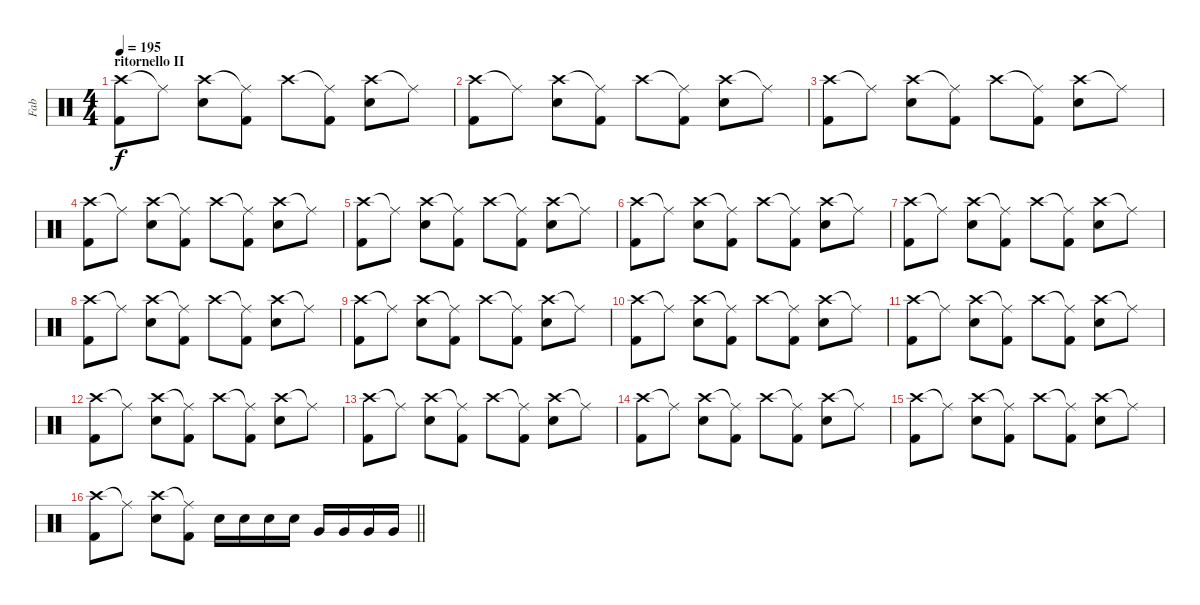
\track ("Fab" "Fab") {instrument percussion}
\staff {score}
\articulation defaults
\ts (4 4)
\section ("" "ritornello II")
\tempo 195
\clef neutral
\ks c
("Crash high (hit)" "Kick (hit) 2").8{dy f} "Ride (middle)"{t}.8 ("Crash high (hit)" "Electric Snare (hit)").8 ("Ride (middle)"{t} "Kick (hit) 2").8 "Crash high (hit)".8 ("Ride (middle)"{t} "Kick (hit) 2").8 ("Crash high (hit)" "Electric Snare (hit)").8 "Ride (middle)"{t}.8 |
("Crash high (hit)" "Kick (hit) 2").8 "Ride (middle)"{t}.8 ("Crash high (hit)" "Electric Snare (hit)").8 ("Ride (middle)"{t} "Kick (hit) 2").8 "Crash high (hit)".8 ("Ride (middle)"{t} "Kick (hit) 2").8 ("Crash high (hit)" "Electric Snare (hit)").8 "Ride (middle)"{t}.8 |
("Crash high (hit)" "Kick (hit) 2").8 "Ride (middle)"{t}.8 ("Crash high (hit)" "Electric Snare (hit)").8 ("Ride (middle)"{t} "Kick (hit) 2").8 "Crash high (hit)".8 ("Ride (middle)"{t} "Kick (hit) 2").8 ("Crash high (hit)" "Electric Snare (hit)").8 "Ride (middle)"{t}.8 |
("Crash high (hit)" "Kick (hit) 2").8 "Ride (middle)"{t}.8 ("Crash high (hit)" "Electric Snare (hit)").8 ("Ride (middle)"{t} "Kick (hit) 2").8 "Crash high (hit)".8 ("Ride (middle)"{t} "Kick (hit) 2").8 ("Crash high (hit)" "Electric Snare (hit)").8 "Ride (middle)"{t}.8 |
("Crash high (hit)" "Kick (hit) 2").8 "Ride (middle)"{t}.8 ("Crash high (hit)" "Electric Snare (hit)").8 ("Ride (middle)"{t} "Kick (hit) 2").8 "Crash high (hit)".8 ("Ride (middle)"{t} "Kick (hit) 2").8 ("Crash high (hit)" "Electric Snare (hit)").8 "Ride (middle)"{t}.8 |
("Crash high (hit)" "Kick (hit) 2").8 "Ride (middle)"{t}.8 ("Crash high (hit)" "Electric Snare (hit)").8 ("Ride (middle)"{t} "Kick (hit) 2").8 "Crash high (hit)".8 ("Ride (middle)"{t} "Kick (hit) 2").8 ("Crash high (hit)" "Electric Snare (hit)").8 "Ride (middle)"{t}.8 |
("Crash high (hit)" "Kick (hit) 2").8 "Ride (middle)"{t}.8 ("Crash high (hit)" "Electric Snare (hit)").8 ("Ride (middle)"{t} "Kick (hit) 2").8 "Crash high (hit)".8 ("Ride (middle)"{t} "Kick (hit) 2").8 ("Crash high (hit)" "Electric Snare (hit)").8 "Ride (middle)"{t}.8 |
("Crash high (hit)" "Kick (hit) 2").8 "Ride (middle)"{t}.8 ("Crash high (hit)" "Electric Snare (hit)").8 ("Ride (middle)"{t} "Kick (hit) 2").8 "Crash high (hit)".8 ("Ride (middle)"{t} "Kick (hit) 2").8 ("Crash high (hit)" "Electric Snare (hit)").8 "Ride (middle)"{t}.8 |
("Crash high (hit)" "Kick (hit) 2").8 "Ride (middle)"{t}.8 ("Crash high (hit)" "Electric Snare (hit)").8 ("Ride (middle)"{t} "Kick (hit) 2").8 "Crash high (hit)".8 ("Ride (middle)"{t} "Kick (hit) 2").8 ("Crash high (hit)" "Electric Snare (hit)").8 "Ride (middle)"{t}.8 |
("Crash high (hit)" "Kick (hit) 2").8 "Ride (middle)"{t}.8 ("Crash high (hit)" "Electric Snare (hit)").8 ("Ride (middle)"{t} "Kick (hit) 2").8 "Crash high (hit)".8 ("Ride (middle)"{t} "Kick (hit) 2").8 ("Crash high (hit)" "Electric Snare (hit)").8 "Ride (middle)"{t}.8 |
("Crash high (hit)" "Kick (hit) 2").8 "Ride (middle)"{t}.8 ("Crash high (hit)" "Electric Snare (hit)").8 ("Ride (middle)"{t} "Kick (hit) 2").8 "Crash high (hit)".8 ("Ride (middle)"{t} "Kick (hit) 2").8 ("Crash high (hit)" "Electric Snare (hit)").8 "Ride (middle)"{t}.8 |
("Crash high (hit)" "Kick (hit) 2").8 "Ride (middle)"{t}.8 ("Crash high (hit)" "Electric Snare (hit)").8 ("Ride (middle)"{t} "Kick (hit) 2").8 "Crash high (hit)".8 ("Ride (middle)"{t} "Kick (hit) 2").8 ("Crash high (hit)" "Electric Snare (hit)").8 "Ride (middle)"{t}.8 |
("Crash high (hit)" "Kick (hit) 2").8 "Ride (middle)"{t}.8 ("Crash high (hit)" "Electric Snare (hit)").8 ("Ride (middle)"{t} "Kick (hit) 2").8 "Crash high (hit)".8 ("Ride (middle)"{t} "Kick (hit) 2").8 ("Crash high (hit)" "Electric Snare (hit)").8 "Ride (middle)"{t}.8 |
("Crash high (hit)" "Kick (hit) 2").8 "Ride (middle)"{t}.8 ("Crash high (hit)" "Electric Snare (hit)").8 ("Ride (middle)"{t} "Kick (hit) 2").8 "Crash high (hit)".8 ("Ride (middle)"{t} "Kick (hit) 2").8 ("Crash high (hit)" "Electric Snare (hit)").8 "Ride (middle)"{t}.8 |
("Crash high (hit)" "Kick (hit) 2").8 "Ride (middle)"{t}.8 ("Crash high (hit)" "Electric Snare (hit)").8 ("Ride (middle)"{t} "Kick (hit) 2").8 "Crash high (hit)".8 ("Ride (middle)"{t} "Kick (hit) 2").8 ("Crash high (hit)" "Electric Snare (hit)").8 "Ride (middle)"{t}.8 |
\barLineRight lightlight
("Crash high (hit)" "Kick (hit) 2").8 "Ride (middle)"{t}.8 ("Crash high (hit)" "Electric Snare (hit)").8 ("Ride (middle)"{t} "Kick (hit) 2").8 "Electric Snare (hit)".16 "Electric Snare (hit)".16 "Electric Snare (hit)".16 "Electric Snare (hit)".16 "Very Low Tom (hit)".16 "Very Low Tom (hit)".16 "Very Low Tom (hit)".16 "Very Low Tom (hit)".16
